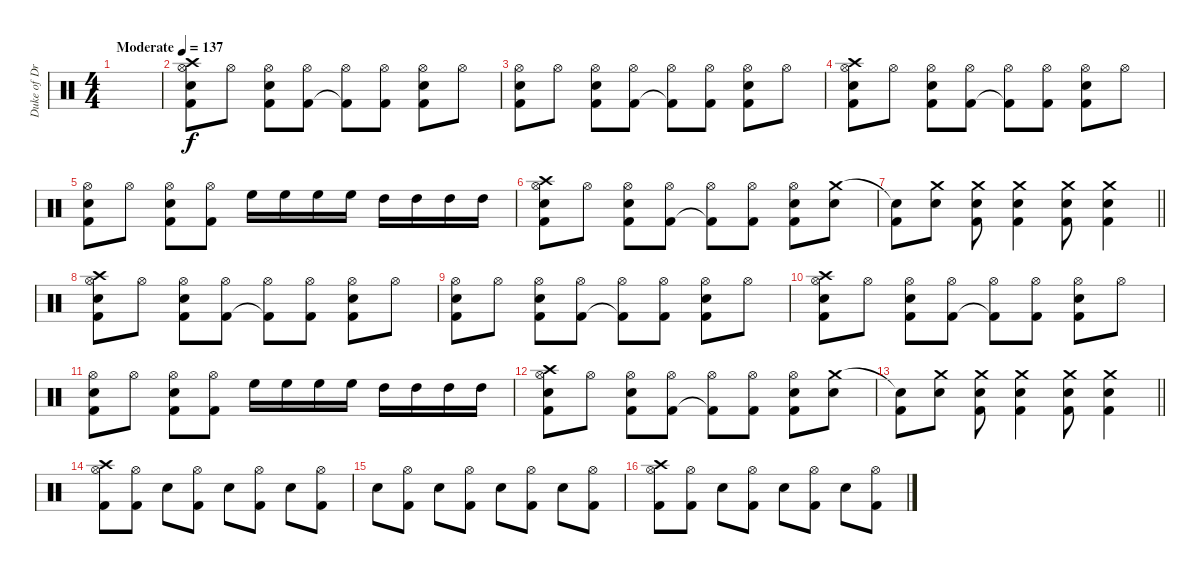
\track ("Duke of Drumington" "Duke of Dr") {instrument percussion}
\staff {score}
\articulation defaults
\ts (4 4)
\tempo (137 "Moderate")
\clef neutral
\ks c
|
("Hi-Hat (open)" "Crash high (hit)" "Snare (hit) 2" "Kick (hit) 2").8 "Hi-Hat (open)".8 ("Hi-Hat (open)" "Snare (hit) 2" "Kick (hit) 2").8 ("Hi-Hat (open)" "Kick (hit) 2").8 ("Hi-Hat (open)" "Kick (hit) 2"{t}).8 ("Hi-Hat (open)" "Kick (hit) 2").8 ("Hi-Hat (open)" "Snare (hit) 2" "Kick (hit) 2").8 "Hi-Hat (open)".8 |
("Hi-Hat (open)" "Snare (hit) 2" "Kick (hit) 2").8 "Hi-Hat (open)".8 ("Hi-Hat (open)" "Snare (hit) 2" "Kick (hit) 2").8 ("Hi-Hat (open)" "Kick (hit) 2").8 ("Hi-Hat (open)" "Kick (hit) 2"{t}).8 ("Hi-Hat (open)" "Kick (hit) 2").8 ("Hi-Hat (open)" "Snare (hit) 2" "Kick (hit) 2").8 "Hi-Hat (open)".8 |
("Hi-Hat (open)" "Crash high (hit)" "Snare (hit) 2" "Kick (hit) 2").8 "Hi-Hat (open)".8 ("Hi-Hat (open)" "Snare (hit) 2" "Kick (hit) 2").8 ("Hi-Hat (open)" "Kick (hit) 2").8 ("Hi-Hat (open)" "Kick (hit) 2"{t}).8 ("Hi-Hat (open)" "Kick (hit) 2").8 ("Hi-Hat (open)" "Snare (hit) 2" "Kick (hit) 2").8 "Hi-Hat (open)".8 |
("Hi-Hat (open)" "Snare (hit) 2" "Kick (hit) 2").8 "Hi-Hat (open)".8 ("Hi-Hat (open)" "Snare (hit) 2" "Kick (hit) 2").8 ("Hi-Hat (open)" "Kick (hit) 2").8 "High Floor Tom (hit)".16 "High Floor Tom (hit)".16 "High Floor Tom (hit)".16 "High Floor Tom (hit)".16 "High Tom (hit)".16 "High Tom (hit)".16 "High Tom (hit)".16 "High Tom (hit)".16 |
("Hi-Hat (open)" "Crash high (hit)" "Snare (hit) 2" "Kick (hit) 2").8 "Hi-Hat (open)".8 ("Hi-Hat (open)" "Snare (hit) 2" "Kick (hit) 2").8 ("Hi-Hat (open)" "Kick (hit) 2").8 ("Hi-Hat (open)" "Kick (hit) 2"{t}).8 ("Hi-Hat (open)" "Kick (hit) 2").8 ("Hi-Hat (open)" "Snare (hit) 2" "Kick (hit) 2").8 ("Crash medium (hit)" "Snare (hit) 2").8 |
\barLineRight lightlight
("Snare (hit) 2"{t} "Kick (hit) 2").8 ("Crash medium (hit)" "Snare (hit) 2").8 ("Crash medium (hit)" "Snare (hit) 2" "Kick (hit) 2").8 ("Crash medium (hit)" "Snare (hit) 2" "Kick (hit) 2").4 ("Crash medium (hit)" "Snare (hit) 2" "Kick (hit) 2").8 ("Crash medium (hit)" "Snare (hit) 2" "Kick (hit) 2").4 |
("Hi-Hat (open)" "Crash high (hit)" "Snare (hit) 2" "Kick (hit) 2").8 "Hi-Hat (open)".8 ("Hi-Hat (open)" "Snare (hit) 2" "Kick (hit) 2").8 ("Hi-Hat (open)" "Kick (hit) 2").8 ("Hi-Hat (open)" "Kick (hit) 2"{t}).8 ("Hi-Hat (open)" "Kick (hit) 2").8 ("Hi-Hat (open)" "Snare (hit) 2" "Kick (hit) 2").8 "Hi-Hat (open)".8 |
("Hi-Hat (open)" "Snare (hit) 2" "Kick (hit) 2").8 "Hi-Hat (open)".8 ("Hi-Hat (open)" "Snare (hit) 2" "Kick (hit) 2").8 ("Hi-Hat (open)" "Kick (hit) 2").8 ("Hi-Hat (open)" "Kick (hit) 2"{t}).8 ("Hi-Hat (open)" "Kick (hit) 2").8 ("Hi-Hat (open)" "Snare (hit) 2" "Kick (hit) 2").8 "Hi-Hat (open)".8 |
("Hi-Hat (open)" "Crash high (hit)" "Snare (hit) 2" "Kick (hit) 2").8 "Hi-Hat (open)".8 ("Hi-Hat (open)" "Snare (hit) 2" "Kick (hit) 2").8 ("Hi-Hat (open)" "Kick (hit) 2").8 ("Hi-Hat (open)" "Kick (hit) 2"{t}).8 ("Hi-Hat (open)" "Kick (hit) 2").8 ("Hi-Hat (open)" "Snare (hit) 2" "Kick (hit) 2").8 "Hi-Hat (open)".8 |
("Hi-Hat (open)" "Snare (hit) 2" "Kick (hit) 2").8 "Hi-Hat (open)".8 ("Hi-Hat (open)" "Snare (hit) 2" "Kick (hit) 2").8 ("Hi-Hat (open)" "Kick (hit) 2").8 "High Floor Tom (hit)".16 "High Floor Tom (hit)".16 "High Floor Tom (hit)".16 "High Floor Tom (hit)".16 "High Tom (hit)".16 "High Tom (hit)".16 "High Tom (hit)".16 "High Tom (hit)".16 |
("Hi-Hat (open)" "Crash high (hit)" "Snare (hit) 2" "Kick (hit) 2").8 "Hi-Hat (open)".8 ("Hi-Hat (open)" "Snare (hit) 2" "Kick (hit) 2").8 ("Hi-Hat (open)" "Kick (hit) 2").8 ("Hi-Hat (open)" "Kick (hit) 2"{t}).8 ("Hi-Hat (open)" "Kick (hit) 2").8 ("Hi-Hat (open)" "Snare (hit) 2" "Kick (hit) 2").8 ("Crash medium (hit)" "Snare (hit) 2").8 |
\barLineRight lightlight
("Snare (hit) 2"{t} "Kick (hit) 2").8 ("Crash medium (hit)" "Snare (hit) 2").8 ("Crash medium (hit)" "Snare (hit) 2" "Kick (hit) 2").8 ("Crash medium (hit)" "Snare (hit) 2" "Kick (hit) 2").4 ("Crash medium (hit)" "Snare (hit) 2" "Kick (hit) 2").8 ("Crash medium (hit)" "Snare (hit) 2" "Kick (hit) 2").4 |
("Hi-Hat (open)" "Crash high (hit)" "Kick (hit) 2").8 ("Hi-Hat (open)" "Kick (hit) 2").8 "Snare (hit) 2".8 ("Hi-Hat (open)" "Kick (hit) 2").8 "Snare (hit) 2".8 ("Hi-Hat (open)" "Kick (hit) 2").8 "Snare (hit) 2".8 ("Hi-Hat (open)" "Kick (hit) 2").8 |
"Snare (hit) 2".8 ("Hi-Hat (open)" "Kick (hit) 2").8 "Snare (hit) 2".8 ("Hi-Hat (open)" "Kick (hit) 2").8 "Snare (hit) 2".8 ("Hi-Hat (open)" "Kick (hit) 2").8 "Snare (hit) 2".8 ("Hi-Hat (open)" "Kick (hit) 2").8 |
("Hi-Hat (open)" "Crash high (hit)" "Kick (hit) 2").8 ("Hi-Hat (open)" "Kick (hit) 2").8 "Snare (hit) 2".8 ("Hi-Hat (open)" "Kick (hit) 2").8 "Snare (hit) 2".8 ("Hi-Hat (open)" "Kick (hit) 2").8 "Snare (hit) 2".8 ("Hi-Hat (open)" "Kick (hit) 2").8
